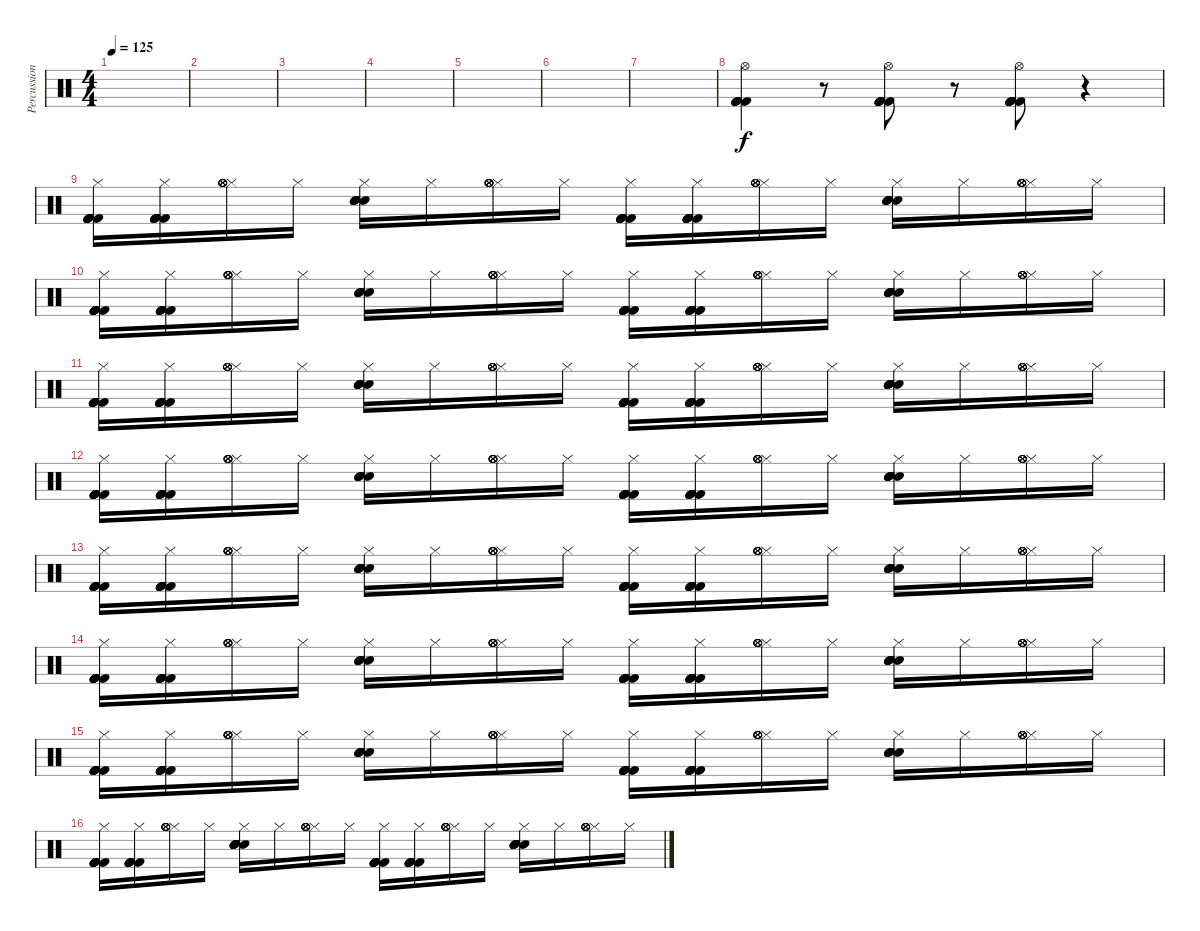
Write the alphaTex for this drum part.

\track ("Percussion" "Percussion") {instrument percussion}
\staff {score}
\articulation defaults
\ts (4 4)
\tempo 125
\clef neutral
\ks c
|
|
|
|
|
|
|
("Kick (hit) 2" "Kick (hit) 2" "Kick (hit) 2" "Hi-Hat (open)" "Kick (hit) 2" "Kick (hit) 2").4 r.8 ("Kick (hit) 2" "Kick (hit) 2" "Kick (hit) 2" "Hi-Hat (open)" "Kick (hit) 2" "Kick (hit) 2").8 r.8 ("Kick (hit) 2" "Kick (hit) 2" "Kick (hit) 2" "Hi-Hat (open)" "Kick (hit) 2" "Kick (hit) 2").8 r.4 |
("Hi-Hat (closed)" "Kick (hit) 2" "Kick (hit) 2" "Kick (hit) 2" "Kick (hit) 2" "Kick (hit) 2").16 ("Hi-Hat (closed)" "Kick (hit) 2" "Kick (hit) 2" "Kick (hit) 2" "Kick (hit) 2" "Kick (hit) 2").16 ("Hi-Hat (closed)" "Hi-Hat (open)" "Hi-Hat (open)" "Hi-Hat (open)" "Hi-Hat (open)" "Hi-Hat (open)").16 "Hi-Hat (closed)".16 ("Hi-Hat (closed)" "Electric Snare (hit)" "Electric Snare (hit)" "Electric Snare (hit)" "Electric Snare (hit)" "Electric Snare (hit)").16 "Hi-Hat (closed)".16 ("Hi-Hat (closed)" "Hi-Hat (open)" "Hi-Hat (open)" "Hi-Hat (open)" "Hi-Hat (open)" "Hi-Hat (open)").16 "Hi-Hat (closed)".16 ("Hi-Hat (closed)" "Kick (hit) 2" "Kick (hit) 2" "Kick (hit) 2" "Kick (hit) 2" "Kick (hit) 2").16 ("Hi-Hat (closed)" "Kick (hit) 2" "Kick (hit) 2" "Kick (hit) 2" "Kick (hit) 2" "Kick (hit) 2").16 ("Hi-Hat (closed)" "Hi-Hat (open)" "Hi-Hat (open)" "Hi-Hat (open)" "Hi-Hat (open)" "Hi-Hat (open)").16 "Hi-Hat (closed)".16 ("Hi-Hat (closed)" "Electric Snare (hit)" "Electric Snare (hit)" "Electric Snare (hit)" "Electric Snare (hit)" "Electric Snare (hit)").16 "Hi-Hat (closed)".16 ("Hi-Hat (closed)" "Hi-Hat (open)" "Hi-Hat (open)" "Hi-Hat (open)" "Hi-Hat (open)" "Hi-Hat (open)").16 "Hi-Hat (closed)".16 |
("Hi-Hat (closed)" "Kick (hit) 2" "Kick (hit) 2" "Kick (hit) 2" "Kick (hit) 2" "Kick (hit) 2").16 ("Hi-Hat (closed)" "Kick (hit) 2" "Kick (hit) 2" "Kick (hit) 2" "Kick (hit) 2" "Kick (hit) 2").16 ("Hi-Hat (closed)" "Hi-Hat (open)" "Hi-Hat (open)" "Hi-Hat (open)" "Hi-Hat (open)" "Hi-Hat (open)").16 "Hi-Hat (closed)".16 ("Hi-Hat (closed)" "Electric Snare (hit)" "Electric Snare (hit)" "Electric Snare (hit)" "Electric Snare (hit)" "Electric Snare (hit)").16 "Hi-Hat (closed)".16 ("Hi-Hat (closed)" "Hi-Hat (open)" "Hi-Hat (open)" "Hi-Hat (open)" "Hi-Hat (open)" "Hi-Hat (open)").16 "Hi-Hat (closed)".16 ("Hi-Hat (closed)" "Kick (hit) 2" "Kick (hit) 2" "Kick (hit) 2" "Kick (hit) 2" "Kick (hit) 2").16 ("Hi-Hat (closed)" "Kick (hit) 2" "Kick (hit) 2" "Kick (hit) 2" "Kick (hit) 2" "Kick (hit) 2").16 ("Hi-Hat (closed)" "Hi-Hat (open)" "Hi-Hat (open)" "Hi-Hat (open)" "Hi-Hat (open)" "Hi-Hat (open)").16 "Hi-Hat (closed)".16 ("Hi-Hat (closed)" "Electric Snare (hit)" "Electric Snare (hit)" "Electric Snare (hit)" "Electric Snare (hit)" "Electric Snare (hit)").16 "Hi-Hat (closed)".16 ("Hi-Hat (closed)" "Hi-Hat (open)" "Hi-Hat (open)" "Hi-Hat (open)" "Hi-Hat (open)" "Hi-Hat (open)").16 "Hi-Hat (closed)".16 |
("Hi-Hat (closed)" "Kick (hit) 2" "Kick (hit) 2" "Kick (hit) 2" "Kick (hit) 2" "Kick (hit) 2").16 ("Hi-Hat (closed)" "Kick (hit) 2" "Kick (hit) 2" "Kick (hit) 2" "Kick (hit) 2" "Kick (hit) 2").16 ("Hi-Hat (closed)" "Hi-Hat (open)" "Hi-Hat (open)" "Hi-Hat (open)" "Hi-Hat (open)" "Hi-Hat (open)").16 "Hi-Hat (closed)".16 ("Hi-Hat (closed)" "Electric Snare (hit)" "Electric Snare (hit)" "Electric Snare (hit)" "Electric Snare (hit)" "Electric Snare (hit)").16 "Hi-Hat (closed)".16 ("Hi-Hat (closed)" "Hi-Hat (open)" "Hi-Hat (open)" "Hi-Hat (open)" "Hi-Hat (open)" "Hi-Hat (open)").16 "Hi-Hat (closed)".16 ("Hi-Hat (closed)" "Kick (hit) 2" "Kick (hit) 2" "Kick (hit) 2" "Kick (hit) 2" "Kick (hit) 2").16 ("Hi-Hat (closed)" "Kick (hit) 2" "Kick (hit) 2" "Kick (hit) 2" "Kick (hit) 2" "Kick (hit) 2").16 ("Hi-Hat (closed)" "Hi-Hat (open)" "Hi-Hat (open)" "Hi-Hat (open)" "Hi-Hat (open)" "Hi-Hat (open)").16 "Hi-Hat (closed)".16 ("Hi-Hat (closed)" "Electric Snare (hit)" "Electric Snare (hit)" "Electric Snare (hit)" "Electric Snare (hit)" "Electric Snare (hit)").16 "Hi-Hat (closed)".16 ("Hi-Hat (closed)" "Hi-Hat (open)" "Hi-Hat (open)" "Hi-Hat (open)" "Hi-Hat (open)" "Hi-Hat (open)").16 "Hi-Hat (closed)".16 |
("Hi-Hat (closed)" "Kick (hit) 2" "Kick (hit) 2" "Kick (hit) 2" "Kick (hit) 2" "Kick (hit) 2").16 ("Hi-Hat (closed)" "Kick (hit) 2" "Kick (hit) 2" "Kick (hit) 2" "Kick (hit) 2" "Kick (hit) 2").16 ("Hi-Hat (closed)" "Hi-Hat (open)" "Hi-Hat (open)" "Hi-Hat (open)" "Hi-Hat (open)" "Hi-Hat (open)").16 "Hi-Hat (closed)".16 ("Hi-Hat (closed)" "Electric Snare (hit)" "Electric Snare (hit)" "Electric Snare (hit)" "Electric Snare (hit)" "Electric Snare (hit)").16 "Hi-Hat (closed)".16 ("Hi-Hat (closed)" "Hi-Hat (open)" "Hi-Hat (open)" "Hi-Hat (open)" "Hi-Hat (open)" "Hi-Hat (open)").16 "Hi-Hat (closed)".16 ("Hi-Hat (closed)" "Kick (hit) 2" "Kick (hit) 2" "Kick (hit) 2" "Kick (hit) 2" "Kick (hit) 2").16 ("Hi-Hat (closed)" "Kick (hit) 2" "Kick (hit) 2" "Kick (hit) 2" "Kick (hit) 2" "Kick (hit) 2").16 ("Hi-Hat (closed)" "Hi-Hat (open)" "Hi-Hat (open)" "Hi-Hat (open)" "Hi-Hat (open)" "Hi-Hat (open)").16 "Hi-Hat (closed)".16 ("Hi-Hat (closed)" "Electric Snare (hit)" "Electric Snare (hit)" "Electric Snare (hit)" "Electric Snare (hit)" "Electric Snare (hit)").16 "Hi-Hat (closed)".16 ("Hi-Hat (closed)" "Hi-Hat (open)" "Hi-Hat (open)" "Hi-Hat (open)" "Hi-Hat (open)" "Hi-Hat (open)").16 "Hi-Hat (closed)".16 |
("Hi-Hat (closed)" "Kick (hit) 2" "Kick (hit) 2" "Kick (hit) 2" "Kick (hit) 2" "Kick (hit) 2").16 ("Hi-Hat (closed)" "Kick (hit) 2" "Kick (hit) 2" "Kick (hit) 2" "Kick (hit) 2" "Kick (hit) 2").16 ("Hi-Hat (closed)" "Hi-Hat (open)" "Hi-Hat (open)" "Hi-Hat (open)" "Hi-Hat (open)" "Hi-Hat (open)").16 "Hi-Hat (closed)".16 ("Hi-Hat (closed)" "Electric Snare (hit)" "Electric Snare (hit)" "Electric Snare (hit)" "Electric Snare (hit)" "Electric Snare (hit)").16 "Hi-Hat (closed)".16 ("Hi-Hat (closed)" "Hi-Hat (open)" "Hi-Hat (open)" "Hi-Hat (open)" "Hi-Hat (open)" "Hi-Hat (open)").16 "Hi-Hat (closed)".16 ("Hi-Hat (closed)" "Kick (hit) 2" "Kick (hit) 2" "Kick (hit) 2" "Kick (hit) 2" "Kick (hit) 2").16 ("Hi-Hat (closed)" "Kick (hit) 2" "Kick (hit) 2" "Kick (hit) 2" "Kick (hit) 2" "Kick (hit) 2").16 ("Hi-Hat (closed)" "Hi-Hat (open)" "Hi-Hat (open)" "Hi-Hat (open)" "Hi-Hat (open)" "Hi-Hat (open)").16 "Hi-Hat (closed)".16 ("Hi-Hat (closed)" "Electric Snare (hit)" "Electric Snare (hit)" "Electric Snare (hit)" "Electric Snare (hit)" "Electric Snare (hit)").16 "Hi-Hat (closed)".16 ("Hi-Hat (closed)" "Hi-Hat (open)" "Hi-Hat (open)" "Hi-Hat (open)" "Hi-Hat (open)" "Hi-Hat (open)").16 "Hi-Hat (closed)".16 |
("Hi-Hat (closed)" "Kick (hit) 2" "Kick (hit) 2" "Kick (hit) 2" "Kick (hit) 2" "Kick (hit) 2").16 ("Hi-Hat (closed)" "Kick (hit) 2" "Kick (hit) 2" "Kick (hit) 2" "Kick (hit) 2" "Kick (hit) 2").16 ("Hi-Hat (closed)" "Hi-Hat (open)" "Hi-Hat (open)" "Hi-Hat (open)" "Hi-Hat (open)" "Hi-Hat (open)").16 "Hi-Hat (closed)".16 ("Hi-Hat (closed)" "Electric Snare (hit)" "Electric Snare (hit)" "Electric Snare (hit)" "Electric Snare (hit)" "Electric Snare (hit)").16 "Hi-Hat (closed)".16 ("Hi-Hat (closed)" "Hi-Hat (open)" "Hi-Hat (open)" "Hi-Hat (open)" "Hi-Hat (open)" "Hi-Hat (open)").16 "Hi-Hat (closed)".16 ("Hi-Hat (closed)" "Kick (hit) 2" "Kick (hit) 2" "Kick (hit) 2" "Kick (hit) 2" "Kick (hit) 2").16 ("Hi-Hat (closed)" "Kick (hit) 2" "Kick (hit) 2" "Kick (hit) 2" "Kick (hit) 2" "Kick (hit) 2").16 ("Hi-Hat (closed)" "Hi-Hat (open)" "Hi-Hat (open)" "Hi-Hat (open)" "Hi-Hat (open)" "Hi-Hat (open)").16 "Hi-Hat (closed)".16 ("Hi-Hat (closed)" "Electric Snare (hit)" "Electric Snare (hit)" "Electric Snare (hit)" "Electric Snare (hit)" "Electric Snare (hit)").16 "Hi-Hat (closed)".16 ("Hi-Hat (closed)" "Hi-Hat (open)" "Hi-Hat (open)" "Hi-Hat (open)" "Hi-Hat (open)" "Hi-Hat (open)").16 "Hi-Hat (closed)".16 |
("Hi-Hat (closed)" "Kick (hit) 2" "Kick (hit) 2" "Kick (hit) 2" "Kick (hit) 2" "Kick (hit) 2").16 ("Hi-Hat (closed)" "Kick (hit) 2" "Kick (hit) 2" "Kick (hit) 2" "Kick (hit) 2" "Kick (hit) 2").16 ("Hi-Hat (closed)" "Hi-Hat (open)" "Hi-Hat (open)" "Hi-Hat (open)" "Hi-Hat (open)" "Hi-Hat (open)").16 "Hi-Hat (closed)".16 ("Hi-Hat (closed)" "Electric Snare (hit)" "Electric Snare (hit)" "Electric Snare (hit)" "Electric Snare (hit)" "Electric Snare (hit)").16 "Hi-Hat (closed)".16 ("Hi-Hat (closed)" "Hi-Hat (open)" "Hi-Hat (open)" "Hi-Hat (open)" "Hi-Hat (open)" "Hi-Hat (open)").16 "Hi-Hat (closed)".16 ("Hi-Hat (closed)" "Kick (hit) 2" "Kick (hit) 2" "Kick (hit) 2" "Kick (hit) 2" "Kick (hit) 2").16 ("Hi-Hat (closed)" "Kick (hit) 2" "Kick (hit) 2" "Kick (hit) 2" "Kick (hit) 2" "Kick (hit) 2").16 ("Hi-Hat (closed)" "Hi-Hat (open)" "Hi-Hat (open)" "Hi-Hat (open)" "Hi-Hat (open)" "Hi-Hat (open)").16 "Hi-Hat (closed)".16 ("Hi-Hat (closed)" "Electric Snare (hit)" "Electric Snare (hit)" "Electric Snare (hit)" "Electric Snare (hit)" "Electric Snare (hit)").16 "Hi-Hat (closed)".16 ("Hi-Hat (closed)" "Hi-Hat (open)" "Hi-Hat (open)" "Hi-Hat (open)" "Hi-Hat (open)" "Hi-Hat (open)").16 "Hi-Hat (closed)".16 |
("Hi-Hat (closed)" "Kick (hit) 2" "Kick (hit) 2" "Kick (hit) 2" "Kick (hit) 2" "Kick (hit) 2").16 ("Hi-Hat (closed)" "Kick (hit) 2" "Kick (hit) 2" "Kick (hit) 2" "Kick (hit) 2" "Kick (hit) 2").16 ("Hi-Hat (closed)" "Hi-Hat (open)" "Hi-Hat (open)" "Hi-Hat (open)" "Hi-Hat (open)" "Hi-Hat (open)").16 "Hi-Hat (closed)".16 ("Hi-Hat (closed)" "Electric Snare (hit)" "Electric Snare (hit)" "Electric Snare (hit)" "Electric Snare (hit)" "Electric Snare (hit)").16 "Hi-Hat (closed)".16 ("Hi-Hat (closed)" "Hi-Hat (open)" "Hi-Hat (open)" "Hi-Hat (open)" "Hi-Hat (open)" "Hi-Hat (open)").16 "Hi-Hat (closed)".16 ("Hi-Hat (closed)" "Kick (hit) 2" "Kick (hit) 2" "Kick (hit) 2" "Kick (hit) 2" "Kick (hit) 2").16 ("Hi-Hat (closed)" "Kick (hit) 2" "Kick (hit) 2" "Kick (hit) 2" "Kick (hit) 2" "Kick (hit) 2").16 ("Hi-Hat (closed)" "Hi-Hat (open)" "Hi-Hat (open)" "Hi-Hat (open)" "Hi-Hat (open)" "Hi-Hat (open)").16 "Hi-Hat (closed)".16 ("Hi-Hat (closed)" "Electric Snare (hit)" "Electric Snare (hit)" "Electric Snare (hit)" "Electric Snare (hit)" "Electric Snare (hit)").16 "Hi-Hat (closed)".16 ("Hi-Hat (closed)" "Hi-Hat (open)" "Hi-Hat (open)" "Hi-Hat (open)" "Hi-Hat (open)" "Hi-Hat (open)").16 "Hi-Hat (closed)".16
